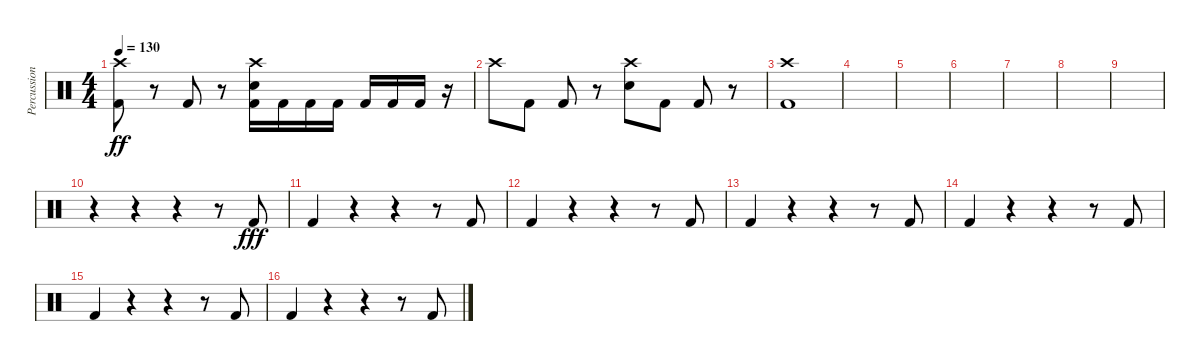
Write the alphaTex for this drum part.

\track ("Percussion" "Percussion") {instrument percussion}
\staff {score}
\articulation defaults
\ts (4 4)
\tempo 130
\clef neutral
\ks c
("Crash high (hit)" "Kick (hit) 2").8{dy ff} r.8 "Kick (hit) 2".8 r.8 ("Electric Snare (hit)" "Crash high (hit)" "Kick (hit) 2").16 "Kick (hit) 2".16 "Kick (hit) 2".16 "Kick (hit) 2".16 "Kick (hit) 2".16 "Kick (hit) 2".16 "Kick (hit) 2".16 r.16 |
"Crash high (hit)".8 "Kick (hit) 2".8 "Kick (hit) 2".8 r.8 ("Electric Snare (hit)" "Crash high (hit)").8 "Kick (hit) 2".8 "Kick (hit) 2".8 r.8 |
("Kick (hit) 2" "Crash high (hit)").1 |
|
|
|
|
|
|
r.4 r.4 r.4 r.8 "Kick (hit) 2".8{dy fff} |
"Kick (hit) 2".4 r.4 r.4 r.8 "Kick (hit) 2".8 |
"Kick (hit) 2".4 r.4 r.4 r.8 "Kick (hit) 2".8 |
"Kick (hit) 2".4 r.4 r.4 r.8 "Kick (hit) 2".8 |
"Kick (hit) 2".4 r.4 r.4 r.8 "Kick (hit) 2".8 |
"Kick (hit) 2".4 r.4 r.4 r.8 "Kick (hit) 2".8 |
"Kick (hit) 2".4 r.4 r.4 r.8 "Kick (hit) 2".8
